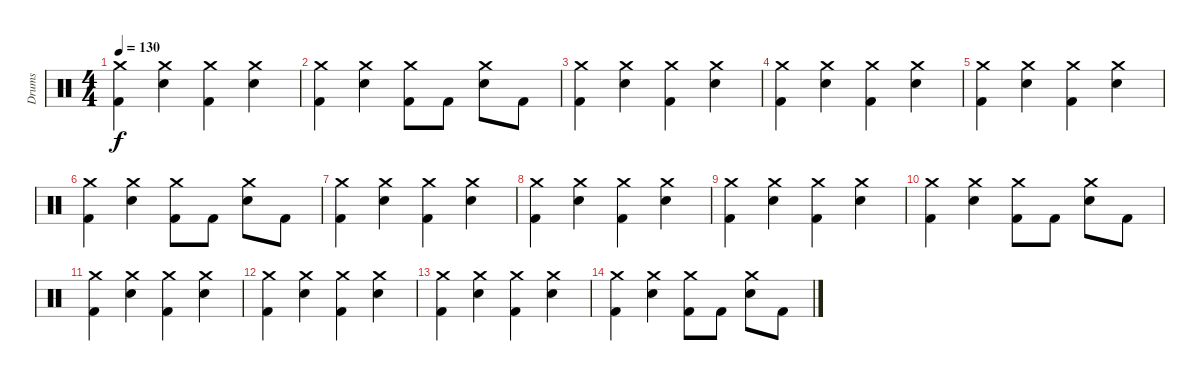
\track ("Drums" "Drums") {instrument percussion}
\staff {score}
\articulation defaults
\ts (4 4)
\tempo 130
\clef neutral
\ks c
("Crash medium (hit)" "Kick (hit) 2").4{dy f} ("Crash medium (hit)" "Electric Snare (hit)").4 ("Crash medium (hit)" "Kick (hit) 2").4 ("Crash medium (hit)" "Electric Snare (hit)").4 |
("Crash medium (hit)" "Kick (hit) 2").4 ("Crash medium (hit)" "Electric Snare (hit)").4 ("Crash medium (hit)" "Kick (hit) 2").8 "Kick (hit) 2".8 ("Crash medium (hit)" "Electric Snare (hit)").8 "Kick (hit) 2".8 |
("Crash medium (hit)" "Kick (hit) 2").4 ("Crash medium (hit)" "Electric Snare (hit)").4 ("Crash medium (hit)" "Kick (hit) 2").4 ("Crash medium (hit)" "Electric Snare (hit)").4 |
("Crash medium (hit)" "Kick (hit) 2").4 ("Crash medium (hit)" "Electric Snare (hit)").4 ("Crash medium (hit)" "Kick (hit) 2").4 ("Crash medium (hit)" "Electric Snare (hit)").4 |
("Crash medium (hit)" "Kick (hit) 2").4 ("Crash medium (hit)" "Electric Snare (hit)").4 ("Crash medium (hit)" "Kick (hit) 2").4 ("Crash medium (hit)" "Electric Snare (hit)").4 |
("Crash medium (hit)" "Kick (hit) 2").4 ("Crash medium (hit)" "Electric Snare (hit)").4 ("Crash medium (hit)" "Kick (hit) 2").8 "Kick (hit) 2".8 ("Crash medium (hit)" "Electric Snare (hit)").8 "Kick (hit) 2".8 |
("Crash medium (hit)" "Kick (hit) 2").4 ("Crash medium (hit)" "Electric Snare (hit)").4 ("Crash medium (hit)" "Kick (hit) 2").4 ("Crash medium (hit)" "Electric Snare (hit)").4 |
("Crash medium (hit)" "Kick (hit) 2").4 ("Crash medium (hit)" "Electric Snare (hit)").4 ("Crash medium (hit)" "Kick (hit) 2").4 ("Crash medium (hit)" "Electric Snare (hit)").4 |
("Crash medium (hit)" "Kick (hit) 2").4 ("Crash medium (hit)" "Electric Snare (hit)").4 ("Crash medium (hit)" "Kick (hit) 2").4 ("Crash medium (hit)" "Electric Snare (hit)").4 |
("Crash medium (hit)" "Kick (hit) 2").4 ("Crash medium (hit)" "Electric Snare (hit)").4 ("Crash medium (hit)" "Kick (hit) 2").8 "Kick (hit) 2".8 ("Crash medium (hit)" "Electric Snare (hit)").8 "Kick (hit) 2".8 |
("Crash medium (hit)" "Kick (hit) 2").4 ("Crash medium (hit)" "Electric Snare (hit)").4 ("Crash medium (hit)" "Kick (hit) 2").4 ("Crash medium (hit)" "Electric Snare (hit)").4 |
("Crash medium (hit)" "Kick (hit) 2").4 ("Crash medium (hit)" "Electric Snare (hit)").4 ("Crash medium (hit)" "Kick (hit) 2").4 ("Crash medium (hit)" "Electric Snare (hit)").4 |
("Crash medium (hit)" "Kick (hit) 2").4 ("Crash medium (hit)" "Electric Snare (hit)").4 ("Crash medium (hit)" "Kick (hit) 2").4 ("Crash medium (hit)" "Electric Snare (hit)").4 |
("Crash medium (hit)" "Kick (hit) 2").4 ("Crash medium (hit)" "Electric Snare (hit)").4 ("Crash medium (hit)" "Kick (hit) 2").8 "Kick (hit) 2".8 ("Crash medium (hit)" "Electric Snare (hit)").8 "Kick (hit) 2".8
